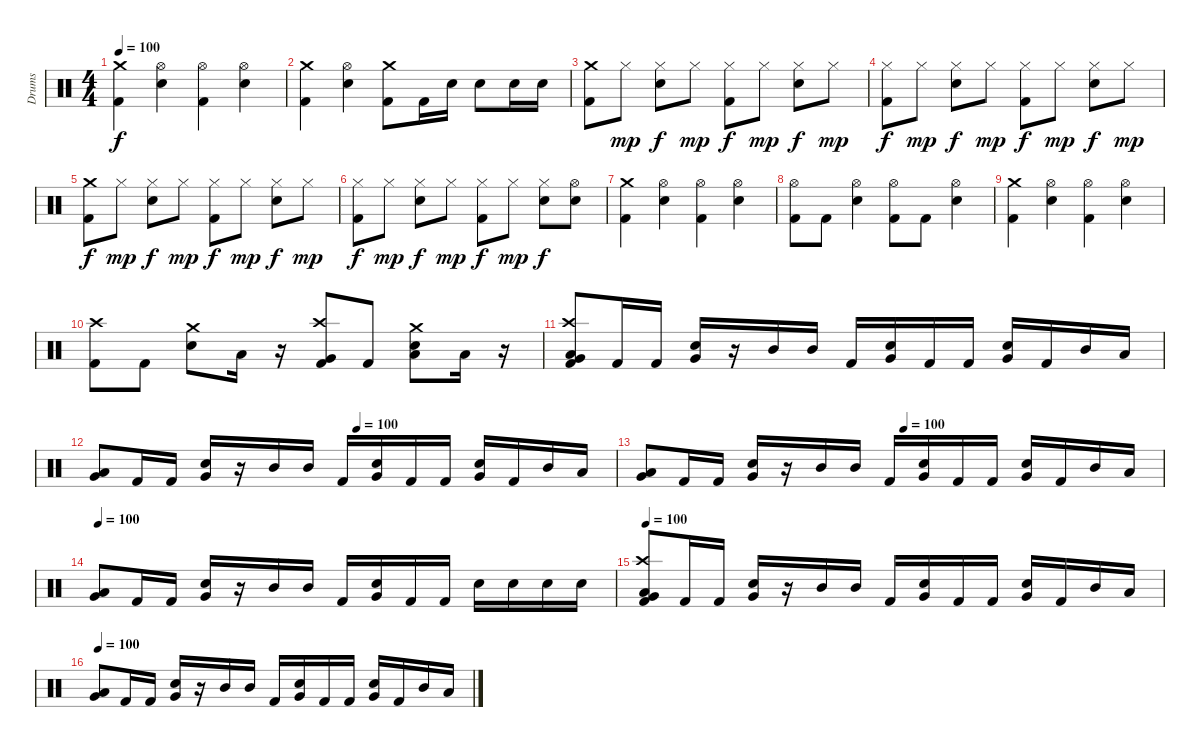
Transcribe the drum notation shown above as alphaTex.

\track ("Drums" "Drums") {instrument percussion}
\staff {score}
\articulation defaults
\ts (4 4)
\tempo 100
\clef neutral
\ks c
("Kick (hit) 2" "Crash medium (hit)").4{dy f} ("Electric Snare (hit)" "Hi-Hat (open)").4 ("Kick (hit) 2" "Hi-Hat (open)").4 ("Electric Snare (hit)" "Hi-Hat (open)").4 |
("Kick (hit) 2" "Crash medium (hit)").4 ("Electric Snare (hit)" "Hi-Hat (open)").4 ("Kick (hit) 2" "Crash medium (hit)").8 "Kick (hit) 2".16 "Electric Snare (hit)".16 "Electric Snare (hit)".8 "Electric Snare (hit)".16 "Electric Snare (hit)".16 |
("Kick (hit) 2" "Crash medium (hit)").8 "Hi-Hat (closed)".8{dy mp} ("Hi-Hat (closed)" "Electric Snare (hit)").8{dy f} "Hi-Hat (closed)".8{dy mp} ("Hi-Hat (closed)" "Kick (hit) 2").8{dy f} "Hi-Hat (closed)".8{dy mp} ("Hi-Hat (closed)" "Electric Snare (hit)").8{dy f} "Hi-Hat (closed)".8{dy mp} |
("Hi-Hat (closed)" "Kick (hit) 2").8{dy f} "Hi-Hat (closed)".8{dy mp} ("Hi-Hat (closed)" "Electric Snare (hit)").8{dy f} "Hi-Hat (closed)".8{dy mp} ("Hi-Hat (closed)" "Kick (hit) 2").8{dy f} "Hi-Hat (closed)".8{dy mp} ("Hi-Hat (closed)" "Electric Snare (hit)").8{dy f} "Hi-Hat (closed)".8{dy mp} |
("Kick (hit) 2" "Crash medium (hit)").8{dy f} "Hi-Hat (closed)".8{dy mp} ("Hi-Hat (closed)" "Electric Snare (hit)").8{dy f} "Hi-Hat (closed)".8{dy mp} ("Hi-Hat (closed)" "Kick (hit) 2").8{dy f} "Hi-Hat (closed)".8{dy mp} ("Hi-Hat (closed)" "Electric Snare (hit)").8{dy f} "Hi-Hat (closed)".8{dy mp} |
("Hi-Hat (closed)" "Kick (hit) 2").8{dy f} "Hi-Hat (closed)".8{dy mp} ("Hi-Hat (closed)" "Electric Snare (hit)").8{dy f} "Hi-Hat (closed)".8{dy mp} ("Hi-Hat (closed)" "Kick (hit) 2").8{dy f} "Hi-Hat (closed)".8{dy mp} ("Hi-Hat (closed)" "Electric Snare (hit)").8{dy f} ("Electric Snare (hit)" "Hi-Hat (open)").8 |
("Kick (hit) 2" "Crash medium (hit)").4 ("Electric Snare (hit)" "Hi-Hat (open)").4 ("Kick (hit) 2" "Hi-Hat (open)").4 ("Electric Snare (hit)" "Hi-Hat (open)").4 |
("Kick (hit) 2" "Hi-Hat (open)").8 "Kick (hit) 2".8 ("Electric Snare (hit)" "Hi-Hat (open)").4 ("Kick (hit) 2" "Hi-Hat (open)").8 "Kick (hit) 2".8 ("Electric Snare (hit)" "Hi-Hat (open)").4 |
("Kick (hit) 2" "Crash medium (hit)").4 ("Electric Snare (hit)" "Hi-Hat (open)").4 ("Kick (hit) 2" "Hi-Hat (open)").4 ("Electric Snare (hit)" "Hi-Hat (open)").4 |
("Kick (hit) 2" "Crash high (hit)").8 "Kick (hit) 2".8 ("Electric Snare (hit)" "Crash medium (hit)").8 "Low Tom (hit)".16 r.16 ("Very Low Tom (hit)" "Kick (hit) 2" "Crash high (hit)").8 "Kick (hit) 2".8 ("Low Floor Tom (hit)" "Electric Snare (hit)" "Crash medium (hit)").8 "Low Tom (hit)".16 r.16 |
("Kick (hit) 2" "Crash high (hit)" "Very Low Tom (hit)" "Low Tom (hit)").8 "Kick (hit) 2".16 "Kick (hit) 2".16 ("Very Low Tom (hit)" "Electric Snare (hit)").16 r.16 "Mid Tom (hit)".16 "Mid Tom (hit)".16 "Kick (hit) 2".16 ("Electric Snare (hit)" "Very Low Tom (hit)").16 "Kick (hit) 2".16 "Kick (hit) 2".16 ("Electric Snare (hit)" "Very Low Tom (hit)").16 "Kick (hit) 2".16 "Mid Tom (hit)".16 "Low Tom (hit)".16 |
\tempo (100 0.5)
("Very Low Tom (hit)" "Low Tom (hit)").8 "Kick (hit) 2".16 "Kick (hit) 2".16 ("Very Low Tom (hit)" "Electric Snare (hit)").16 r.16 "Mid Tom (hit)".16 "Mid Tom (hit)".16 "Kick (hit) 2".16 ("Electric Snare (hit)" "Very Low Tom (hit)").16 "Kick (hit) 2".16 "Kick (hit) 2".16 ("Electric Snare (hit)" "Very Low Tom (hit)").16 "Kick (hit) 2".16 "Mid Tom (hit)".16 "Low Tom (hit)".16 |
\tempo (100 0.5)
("Very Low Tom (hit)" "Low Tom (hit)").8 "Kick (hit) 2".16 "Kick (hit) 2".16 ("Very Low Tom (hit)" "Electric Snare (hit)").16 r.16 "Mid Tom (hit)".16 "Mid Tom (hit)".16 "Kick (hit) 2".16 ("Electric Snare (hit)" "Very Low Tom (hit)").16 "Kick (hit) 2".16 "Kick (hit) 2".16 ("Electric Snare (hit)" "Very Low Tom (hit)").16 "Kick (hit) 2".16 "Mid Tom (hit)".16 "Low Tom (hit)".16 |
\tempo 100
("Very Low Tom (hit)" "Low Tom (hit)").8 "Kick (hit) 2".16 "Kick (hit) 2".16 ("Very Low Tom (hit)" "Electric Snare (hit)").16 r.16 "Mid Tom (hit)".16 "Mid Tom (hit)".16 "Kick (hit) 2".16 ("Electric Snare (hit)" "Very Low Tom (hit)").16 "Kick (hit) 2".16 "Kick (hit) 2".16 "Electric Snare (hit)".16 "Electric Snare (hit)".16 "Electric Snare (hit)".16 "Electric Snare (hit)".16 |
\tempo 100
("Kick (hit) 2" "Crash high (hit)" "Very Low Tom (hit)" "Low Tom (hit)").8 "Kick (hit) 2".16 "Kick (hit) 2".16 ("Very Low Tom (hit)" "Electric Snare (hit)").16 r.16 "Mid Tom (hit)".16 "Mid Tom (hit)".16 "Kick (hit) 2".16 ("Electric Snare (hit)" "Very Low Tom (hit)").16 "Kick (hit) 2".16 "Kick (hit) 2".16 ("Electric Snare (hit)" "Very Low Tom (hit)").16 "Kick (hit) 2".16 "Mid Tom (hit)".16 "Low Tom (hit)".16 |
\tempo 100
("Very Low Tom (hit)" "Low Tom (hit)").8 "Kick (hit) 2".16 "Kick (hit) 2".16 ("Very Low Tom (hit)" "Electric Snare (hit)").16 r.16 "Mid Tom (hit)".16 "Mid Tom (hit)".16 "Kick (hit) 2".16 ("Electric Snare (hit)" "Very Low Tom (hit)").16 "Kick (hit) 2".16 "Kick (hit) 2".16 ("Electric Snare (hit)" "Very Low Tom (hit)").16 "Kick (hit) 2".16 "Mid Tom (hit)".16 "Low Tom (hit)".16
